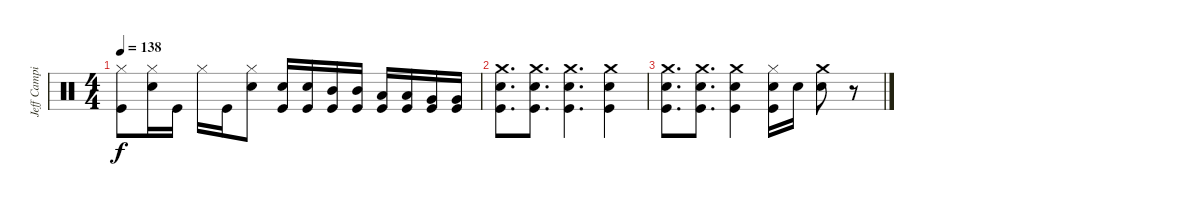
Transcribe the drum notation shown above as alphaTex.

\track ("Jeff Campitelli" "Jeff Campi") {instrument percussion}
\staff {score}
\articulation defaults
\ts (4 4)
\tempo 138
\clef neutral
\ks c
("Hi-Hat (closed)" "Kick (hit)").8{dy f} ("Electric Snare (hit)" "Hi-Hat (closed)").16 "Kick (hit)".16 "Hi-Hat (closed)".16 "Kick (hit)".16 ("Electric Snare (hit)" "Hi-Hat (closed)").8 ("Electric Snare (hit)" "Kick (hit)").16 ("Electric Snare (hit)" "Kick (hit)").16 ("Mid Tom (hit)" "Kick (hit)").16 ("Mid Tom (hit)" "Kick (hit)").16 ("Low Tom (hit)" "Kick (hit)").16 ("Low Tom (hit)" "Kick (hit)").16 ("Very Low Tom (hit)" "Kick (hit)").16 ("Very Low Tom (hit)" "Kick (hit)").16 |
("Crash medium (hit)" "Electric Snare (hit)" "Kick (hit)").8{d} ("Crash medium (hit)" "Electric Snare (hit)" "Kick (hit)").8{d} ("Crash medium (hit)" "Electric Snare (hit)" "Kick (hit)").4{d} ("Crash medium (hit)" "Electric Snare (hit)" "Kick (hit)").4 |
("Crash medium (hit)" "Electric Snare (hit)" "Kick (hit)").8{d} ("Crash medium (hit)" "Electric Snare (hit)" "Kick (hit)").8{d} ("Crash medium (hit)" "Electric Snare (hit)" "Kick (hit)").4 ("Hi-Hat (closed)" "Electric Snare (hit)" "Kick (hit)").16 "Electric Snare (hit)".16 ("Crash medium (hit)" "Electric Snare (hit)").8 r.8
